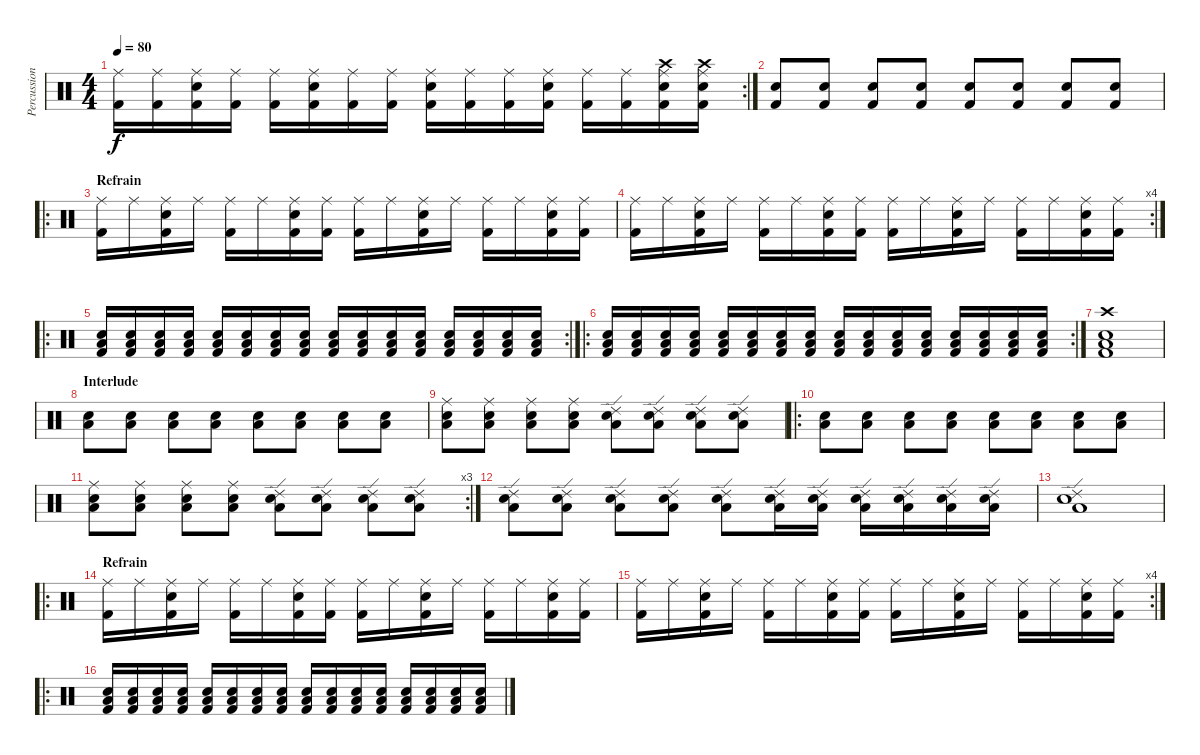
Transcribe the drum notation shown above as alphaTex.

\track ("Percussions" "Percussion") {instrument percussion}
\staff {score}
\articulation defaults
\rc 2
\ts (4 4)
\tempo 80
\clef neutral
\ks c
("Ride (middle)" "Kick (hit) 2").16{dy f} ("Ride (middle)" "Kick (hit) 2").16 ("Ride (middle)" "Snare (hit) 2" "Kick (hit) 2").16 ("Ride (middle)" "Kick (hit) 2").16 ("Ride (middle)" "Kick (hit) 2").16 ("Ride (middle)" "Snare (hit) 2" "Kick (hit) 2").16 ("Ride (middle)" "Kick (hit) 2").16 ("Ride (middle)" "Kick (hit) 2").16 ("Ride (middle)" "Snare (hit) 2" "Kick (hit) 2").16 ("Ride (middle)" "Kick (hit) 2").16 ("Ride (middle)" "Kick (hit) 2").16 ("Ride (middle)" "Snare (hit) 2" "Kick (hit) 2").16 ("Ride (middle)" "Kick (hit) 2").16 ("Ride (middle)" "Kick (hit) 2").16 ("Ride (middle)" "Snare (hit) 2" "Kick (hit) 2" "Crash high (hit)").16 ("Ride (middle)" "Snare (hit) 2" "Kick (hit) 2" "Crash high (hit)").16 |
("Kick (hit) 2" "Electric Snare (hit)").8 ("Kick (hit) 2" "Electric Snare (hit)").8 ("Kick (hit) 2" "Electric Snare (hit)").8 ("Kick (hit) 2" "Electric Snare (hit)").8 ("Kick (hit) 2" "Electric Snare (hit)").8 ("Kick (hit) 2" "Electric Snare (hit)").8 ("Kick (hit) 2" "Electric Snare (hit)").8 ("Kick (hit) 2" "Electric Snare (hit)").8 |
\ro
\section ("" "Refrain")
("Ride (middle)" "Kick (hit) 2").16 "Ride (middle)".16 ("Ride (middle)" "Snare (hit) 2" "Kick (hit) 2").16 "Ride (middle)".16 ("Ride (middle)" "Kick (hit) 2").16 "Ride (middle)".16 ("Ride (middle)" "Snare (hit) 2" "Kick (hit) 2").16 ("Ride (middle)" "Kick (hit) 2").16 ("Ride (middle)" "Kick (hit) 2").16 "Ride (middle)".16 ("Ride (middle)" "Snare (hit) 2" "Kick (hit) 2").16 "Ride (middle)".16 ("Ride (middle)" "Kick (hit) 2").16 "Ride (middle)".16 ("Ride (middle)" "Snare (hit) 2" "Kick (hit) 2").16 ("Ride (middle)" "Kick (hit) 2").16 |
\rc 4
("Ride (middle)" "Kick (hit) 2").16 "Ride (middle)".16 ("Ride (middle)" "Snare (hit) 2" "Kick (hit) 2").16 "Ride (middle)".16 ("Ride (middle)" "Kick (hit) 2").16 "Ride (middle)".16 ("Ride (middle)" "Snare (hit) 2" "Kick (hit) 2").16 ("Ride (middle)" "Kick (hit) 2").16 ("Ride (middle)" "Kick (hit) 2").16 "Ride (middle)".16 ("Ride (middle)" "Snare (hit) 2" "Kick (hit) 2").16 "Ride (middle)".16 ("Ride (middle)" "Kick (hit) 2").16 "Ride (middle)".16 ("Ride (middle)" "Snare (hit) 2" "Kick (hit) 2").16 ("Ride (middle)" "Kick (hit) 2").16 |
\ro
\rc 2
("Snare (hit) 2" "Low Tom (hit)" "Kick (hit) 2").16 ("Snare (hit) 2" "Low Tom (hit)" "Kick (hit) 2").16 ("Snare (hit) 2" "Low Tom (hit)" "Kick (hit) 2").16 ("Snare (hit) 2" "Low Tom (hit)" "Kick (hit) 2").16 ("Snare (hit) 2" "Low Tom (hit)" "Kick (hit) 2").16 ("Snare (hit) 2" "Low Tom (hit)" "Kick (hit) 2").16 ("Snare (hit) 2" "Low Tom (hit)" "Kick (hit) 2").16 ("Snare (hit) 2" "Low Tom (hit)" "Kick (hit) 2").16 ("Snare (hit) 2" "Low Tom (hit)" "Kick (hit) 2").16 ("Snare (hit) 2" "Low Tom (hit)" "Kick (hit) 2").16 ("Snare (hit) 2" "Low Tom (hit)" "Kick (hit) 2").16 ("Snare (hit) 2" "Low Tom (hit)" "Kick (hit) 2").16 ("Snare (hit) 2" "Low Tom (hit)" "Kick (hit) 2").16 ("Snare (hit) 2" "Low Tom (hit)" "Kick (hit) 2").16 ("Snare (hit) 2" "Low Tom (hit)" "Kick (hit) 2").16 ("Snare (hit) 2" "Low Tom (hit)" "Kick (hit) 2").16 |
\ro
\rc 2
("Snare (hit) 2" "Low Tom (hit)" "Kick (hit) 2").16 ("Snare (hit) 2" "Low Tom (hit)" "Kick (hit) 2").16 ("Snare (hit) 2" "Low Tom (hit)" "Kick (hit) 2").16 ("Snare (hit) 2" "Low Tom (hit)" "Kick (hit) 2").16 ("Snare (hit) 2" "Low Tom (hit)" "Kick (hit) 2").16 ("Snare (hit) 2" "Low Tom (hit)" "Kick (hit) 2").16 ("Snare (hit) 2" "Low Tom (hit)" "Kick (hit) 2").16 ("Snare (hit) 2" "Low Tom (hit)" "Kick (hit) 2").16 ("Snare (hit) 2" "Low Tom (hit)" "Kick (hit) 2").16 ("Snare (hit) 2" "Low Tom (hit)" "Kick (hit) 2").16 ("Snare (hit) 2" "Low Tom (hit)" "Kick (hit) 2").16 ("Snare (hit) 2" "Low Tom (hit)" "Kick (hit) 2").16 ("Snare (hit) 2" "Low Tom (hit)" "Kick (hit) 2").16 ("Snare (hit) 2" "Low Tom (hit)" "Kick (hit) 2").16 ("Snare (hit) 2" "Low Tom (hit)" "Kick (hit) 2").16 ("Snare (hit) 2" "Low Tom (hit)" "Kick (hit) 2").16 |
("Crash high (hit)" "Snare (hit) 2" "Low Tom (hit)" "Kick (hit) 2").1 |
\section ("" "Interlude")
("Snare (hit) 2" "Low Floor Tom (hit)").8 ("Snare (hit) 2" "Low Floor Tom (hit)").8 ("Snare (hit) 2" "Low Floor Tom (hit)").8 ("Snare (hit) 2" "Low Floor Tom (hit)").8 ("Snare (hit) 2" "Low Floor Tom (hit)").8 ("Snare (hit) 2" "Low Floor Tom (hit)").8 ("Snare (hit) 2" "Low Floor Tom (hit)").8 ("Snare (hit) 2" "Low Floor Tom (hit)").8 |
("Ride (middle)" "Snare (hit) 2" "Low Floor Tom (hit)").8 ("Ride (middle)" "Snare (hit) 2" "Low Floor Tom (hit)").8 ("Ride (middle)" "Snare (hit) 2" "Low Floor Tom (hit)").8 ("Ride (middle)" "Snare (hit) 2" "Low Floor Tom (hit)").8 ("Ride (edge) 2" "Snare (hit) 2" "Low Floor Tom (hit)").8 ("Ride (edge) 2" "Snare (hit) 2" "Low Floor Tom (hit)").8 ("Ride (edge) 2" "Snare (hit) 2" "Low Floor Tom (hit)").8 ("Ride (edge) 2" "Snare (hit) 2" "Low Floor Tom (hit)").8 |
\ro
("Snare (hit) 2" "Low Floor Tom (hit)").8 ("Snare (hit) 2" "Low Floor Tom (hit)").8 ("Snare (hit) 2" "Low Floor Tom (hit)").8 ("Snare (hit) 2" "Low Floor Tom (hit)").8 ("Snare (hit) 2" "Low Floor Tom (hit)").8 ("Snare (hit) 2" "Low Floor Tom (hit)").8 ("Snare (hit) 2" "Low Floor Tom (hit)").8 ("Snare (hit) 2" "Low Floor Tom (hit)").8 |
\rc 3
("Ride (middle)" "Snare (hit) 2" "Low Floor Tom (hit)").8 ("Ride (middle)" "Snare (hit) 2" "Low Floor Tom (hit)").8 ("Ride (middle)" "Snare (hit) 2" "Low Floor Tom (hit)").8 ("Ride (middle)" "Snare (hit) 2" "Low Floor Tom (hit)").8 ("Ride (edge) 2" "Snare (hit) 2" "Low Floor Tom (hit)").8 ("Ride (edge) 2" "Snare (hit) 2" "Low Floor Tom (hit)").8 ("Ride (edge) 2" "Snare (hit) 2" "Low Floor Tom (hit)").8 ("Ride (edge) 2" "Snare (hit) 2" "Low Floor Tom (hit)").8 |
("Ride (edge) 2" "Snare (hit) 2" "Low Floor Tom (hit)").8 ("Ride (edge) 2" "Snare (hit) 2" "Low Floor Tom (hit)").8 ("Ride (edge) 2" "Snare (hit) 2" "Low Floor Tom (hit)").8 ("Ride (edge) 2" "Snare (hit) 2" "Low Floor Tom (hit)").8 ("Ride (edge) 2" "Snare (hit) 2" "Low Floor Tom (hit)").8 ("Ride (edge) 2" "Snare (hit) 2" "Low Floor Tom (hit)").16 ("Ride (edge) 2" "Snare (hit) 2" "Low Floor Tom (hit)").16 ("Ride (edge) 2" "Snare (hit) 2" "Low Floor Tom (hit)").16 ("Ride (edge) 2" "Snare (hit) 2" "Low Floor Tom (hit)").16 ("Ride (edge) 2" "Snare (hit) 2" "Low Floor Tom (hit)").16 ("Ride (edge) 2" "Snare (hit) 2" "Low Floor Tom (hit)").16 |
("Ride (edge) 2" "Snare (hit) 2" "Low Floor Tom (hit)").1 |
\ro
\section ("" "Refrain")
("Ride (middle)" "Kick (hit) 2").16 "Ride (middle)".16 ("Ride (middle)" "Snare (hit) 2" "Kick (hit) 2").16 "Ride (middle)".16 ("Ride (middle)" "Kick (hit) 2").16 "Ride (middle)".16 ("Ride (middle)" "Snare (hit) 2" "Kick (hit) 2").16 ("Ride (middle)" "Kick (hit) 2").16 ("Ride (middle)" "Kick (hit) 2").16 "Ride (middle)".16 ("Ride (middle)" "Snare (hit) 2" "Kick (hit) 2").16 "Ride (middle)".16 ("Ride (middle)" "Kick (hit) 2").16 "Ride (middle)".16 ("Ride (middle)" "Snare (hit) 2" "Kick (hit) 2").16 ("Ride (middle)" "Kick (hit) 2").16 |
\rc 4
("Ride (middle)" "Kick (hit) 2").16 "Ride (middle)".16 ("Ride (middle)" "Snare (hit) 2" "Kick (hit) 2").16 "Ride (middle)".16 ("Ride (middle)" "Kick (hit) 2").16 "Ride (middle)".16 ("Ride (middle)" "Snare (hit) 2" "Kick (hit) 2").16 ("Ride (middle)" "Kick (hit) 2").16 ("Ride (middle)" "Kick (hit) 2").16 "Ride (middle)".16 ("Ride (middle)" "Snare (hit) 2" "Kick (hit) 2").16 "Ride (middle)".16 ("Ride (middle)" "Kick (hit) 2").16 "Ride (middle)".16 ("Ride (middle)" "Snare (hit) 2" "Kick (hit) 2").16 ("Ride (middle)" "Kick (hit) 2").16 |
\ro
("Snare (hit) 2" "Low Tom (hit)" "Kick (hit) 2").16 ("Snare (hit) 2" "Low Tom (hit)" "Kick (hit) 2").16 ("Snare (hit) 2" "Low Tom (hit)" "Kick (hit) 2").16 ("Snare (hit) 2" "Low Tom (hit)" "Kick (hit) 2").16 ("Snare (hit) 2" "Low Tom (hit)" "Kick (hit) 2").16 ("Snare (hit) 2" "Low Tom (hit)" "Kick (hit) 2").16 ("Snare (hit) 2" "Low Tom (hit)" "Kick (hit) 2").16 ("Snare (hit) 2" "Low Tom (hit)" "Kick (hit) 2").16 ("Snare (hit) 2" "Low Tom (hit)" "Kick (hit) 2").16 ("Snare (hit) 2" "Low Tom (hit)" "Kick (hit) 2").16 ("Snare (hit) 2" "Low Tom (hit)" "Kick (hit) 2").16 ("Snare (hit) 2" "Low Tom (hit)" "Kick (hit) 2").16 ("Snare (hit) 2" "Low Tom (hit)" "Kick (hit) 2").16 ("Snare (hit) 2" "Low Tom (hit)" "Kick (hit) 2").16 ("Snare (hit) 2" "Low Tom (hit)" "Kick (hit) 2").16 ("Snare (hit) 2" "Low Tom (hit)" "Kick (hit) 2").16
